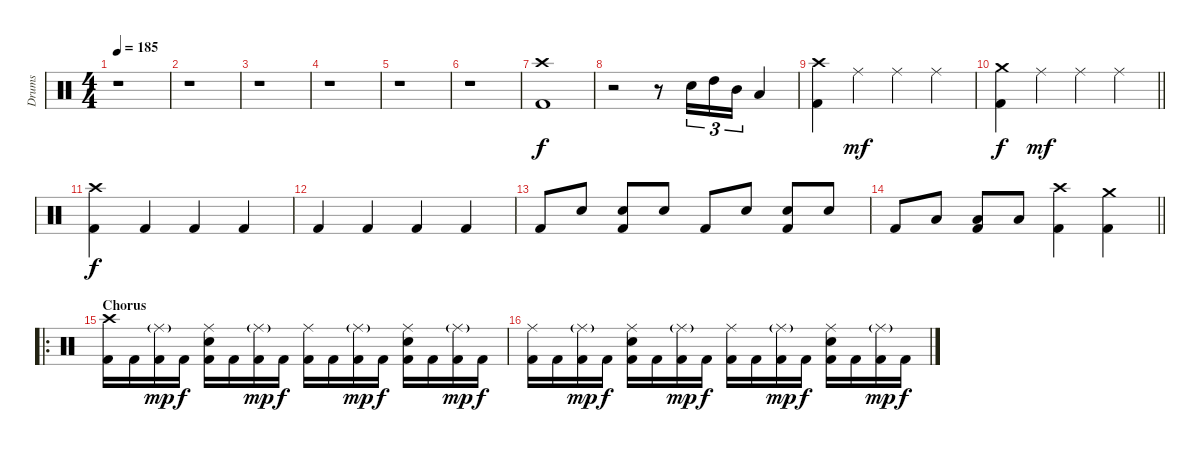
\track ("Drums" "Drums") {instrument percussion}
\staff {score}
\articulation defaults
\ts (4 4)
\tempo 185
\clef neutral
\ks c
r.1{dy f} |
r.1 |
r.1 |
r.1 |
r.1 |
r.1 |
("Crash high (hit)" "Kick (hit) 2").1 |
r.2 r.8 "Electric Snare (hit)".16{tu (3 2)} "High Tom (hit)".16{tu (3 2)} "Mid Tom (hit)".16{tu (3 2)} "Low Tom (hit)".4 |
("Crash high (hit)" "Kick (hit) 2").4 "Ride (middle)".4{dy mf} "Ride (middle)".4 "Ride (middle)".4 |
\barLineRight lightlight
("Crash medium (hit)" "Kick (hit) 2").4{dy f} "Ride (middle)".4{dy mf} "Ride (middle)".4 "Ride (middle)".4 |
("Crash high (hit)" "Kick (hit) 2").4{dy f} "Kick (hit) 2".4 "Kick (hit) 2".4 "Kick (hit) 2".4 |
"Kick (hit) 2".4 "Kick (hit) 2".4 "Kick (hit) 2".4 "Kick (hit) 2".4 |
"Kick (hit) 2".8 "Electric Snare (hit)".8 ("Electric Snare (hit)" "Kick (hit) 2").8 "Electric Snare (hit)".8 "Kick (hit) 2".8 "Electric Snare (hit)".8 ("Electric Snare (hit)" "Kick (hit) 2").8 "Electric Snare (hit)".8 |
\barLineRight lightlight "Kick (hit) 2".8 "Low Tom (hit)".8
("Low Tom (hit)" "Kick (hit) 2").8 "Low Tom (hit)".8 ("Crash high (hit)" "Kick (hit) 2").4 ("Crash medium (hit)" "Kick (hit) 2").4 |
\ro
\section ("" "Chorus")
("Crash high (hit)" "Kick (hit) 2").16 "Kick (hit) 2".16 ("Ride (middle)"{g} "Kick (hit) 2").16{dy mp} "Kick (hit) 2".16{dy f} ("Ride (middle)" "Electric Snare (hit)" "Kick (hit) 2").16 "Kick (hit) 2".16 ("Ride (middle)"{g} "Kick (hit) 2").16{dy mp} "Kick (hit) 2".16{dy f} ("Ride (middle)" "Kick (hit) 2").16 "Kick (hit) 2".16 ("Ride (middle)"{g} "Kick (hit) 2").16{dy mp} "Kick (hit) 2".16{dy f} ("Ride (middle)" "Electric Snare (hit)" "Kick (hit) 2").16 "Kick (hit) 2".16 ("Ride (middle)"{g} "Kick (hit) 2").16{dy mp} "Kick (hit) 2".16{dy f} |
("Ride (middle)" "Kick (hit) 2").16 "Kick (hit) 2".16 ("Ride (middle)"{g} "Kick (hit) 2").16{dy mp} "Kick (hit) 2".16{dy f} ("Ride (middle)" "Electric Snare (hit)" "Kick (hit) 2").16 "Kick (hit) 2".16 ("Ride (middle)"{g} "Kick (hit) 2").16{dy mp} "Kick (hit) 2".16{dy f} ("Ride (middle)" "Kick (hit) 2").16 "Kick (hit) 2".16 ("Ride (middle)"{g} "Kick (hit) 2").16{dy mp} "Kick (hit) 2".16{dy f} ("Ride (middle)" "Electric Snare (hit)" "Kick (hit) 2").16 "Kick (hit) 2".16 ("Ride (middle)"{g} "Kick (hit) 2").16{dy mp} "Kick (hit) 2".16{dy f}
